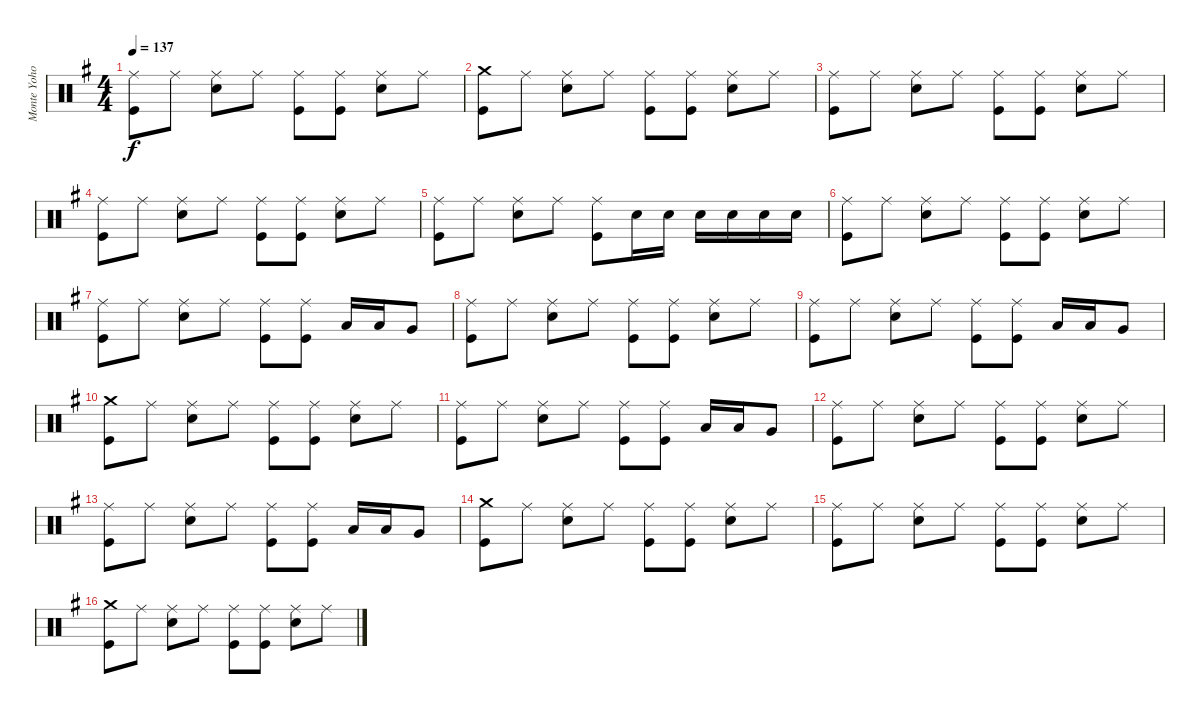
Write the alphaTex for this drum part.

\track ("Monte Yoho Drums" "Monte Yoho") {instrument percussion}
\staff {score}
\articulation defaults
\ts (4 4)
\tempo 137
\clef neutral
\ks g
("Ride (middle)" "Kick (hit)").8{dy f} "Ride (middle)".8 ("Ride (middle)" "Snare (hit) 2").8 "Ride (middle)".8 ("Ride (middle)" "Kick (hit)").8 ("Ride (middle)" "Kick (hit)").8 ("Ride (middle)" "Snare (hit) 2").8 "Ride (middle)".8 |
("Crash medium (hit)" "Kick (hit)").8 "Ride (middle)".8 ("Ride (middle)" "Snare (hit) 2").8 "Ride (middle)".8 ("Ride (middle)" "Kick (hit)").8 ("Ride (middle)" "Kick (hit)").8 ("Ride (middle)" "Snare (hit) 2").8 "Ride (middle)".8 |
("Ride (middle)" "Kick (hit)").8 "Ride (middle)".8 ("Ride (middle)" "Snare (hit) 2").8 "Ride (middle)".8 ("Ride (middle)" "Kick (hit)").8 ("Ride (middle)" "Kick (hit)").8 ("Ride (middle)" "Snare (hit) 2").8 "Ride (middle)".8 |
("Ride (middle)" "Kick (hit)").8 "Ride (middle)".8 ("Ride (middle)" "Snare (hit) 2").8 "Ride (middle)".8 ("Ride (middle)" "Kick (hit)").8 ("Ride (middle)" "Kick (hit)").8 ("Ride (middle)" "Snare (hit) 2").8 "Ride (middle)".8 |
("Ride (middle)" "Kick (hit)").8 "Ride (middle)".8 ("Ride (middle)" "Snare (hit) 2").8 "Ride (middle)".8 ("Ride (middle)" "Kick (hit)").8 "Snare (hit) 2".16 "Snare (hit) 2".16 "Snare (hit) 2".16 "Snare (hit) 2".16 "Snare (hit) 2".16 "Snare (hit) 2".16 |
("Ride (middle)" "Kick (hit)").8 "Ride (middle)".8 ("Ride (middle)" "Snare (hit) 2").8 "Ride (middle)".8 ("Ride (middle)" "Kick (hit)").8 ("Ride (middle)" "Kick (hit)").8 ("Ride (middle)" "Snare (hit) 2").8 "Ride (middle)".8 |
("Ride (middle)" "Kick (hit)").8 "Ride (middle)".8 ("Ride (middle)" "Snare (hit) 2").8 "Ride (middle)".8 ("Ride (middle)" "Kick (hit)").8 ("Ride (middle)" "Kick (hit)").8 "Low Tom (hit)".16 "Low Tom (hit)".16 "Very Low Tom (hit)".8 |
("Ride (middle)" "Kick (hit)").8 "Ride (middle)".8 ("Ride (middle)" "Snare (hit) 2").8 "Ride (middle)".8 ("Ride (middle)" "Kick (hit)").8 ("Ride (middle)" "Kick (hit)").8 ("Ride (middle)" "Snare (hit) 2").8 "Ride (middle)".8 |
("Ride (middle)" "Kick (hit)").8 "Ride (middle)".8 ("Ride (middle)" "Snare (hit) 2").8 "Ride (middle)".8 ("Ride (middle)" "Kick (hit)").8 ("Ride (middle)" "Kick (hit)").8 "Low Tom (hit)".16 "Low Tom (hit)".16 "Very Low Tom (hit)".8 |
("Crash medium (hit)" "Kick (hit)").8 "Ride (middle)".8 ("Ride (middle)" "Snare (hit) 2").8 "Ride (middle)".8 ("Ride (middle)" "Kick (hit)").8 ("Ride (middle)" "Kick (hit)").8 ("Ride (middle)" "Snare (hit) 2").8 "Ride (middle)".8 |
("Ride (middle)" "Kick (hit)").8 "Ride (middle)".8 ("Ride (middle)" "Snare (hit) 2").8 "Ride (middle)".8 ("Ride (middle)" "Kick (hit)").8 ("Ride (middle)" "Kick (hit)").8 "Low Tom (hit)".16 "Low Tom (hit)".16 "Very Low Tom (hit)".8 |
("Ride (middle)" "Kick (hit)").8 "Ride (middle)".8 ("Ride (middle)" "Snare (hit) 2").8 "Ride (middle)".8 ("Ride (middle)" "Kick (hit)").8 ("Ride (middle)" "Kick (hit)").8 ("Ride (middle)" "Snare (hit) 2").8 "Ride (middle)".8 |
("Ride (middle)" "Kick (hit)").8 "Ride (middle)".8 ("Ride (middle)" "Snare (hit) 2").8 "Ride (middle)".8 ("Ride (middle)" "Kick (hit)").8 ("Ride (middle)" "Kick (hit)").8 "Low Tom (hit)".16 "Low Tom (hit)".16 "Very Low Tom (hit)".8 |
("Crash medium (hit)" "Kick (hit)").8 "Ride (middle)".8 ("Ride (middle)" "Snare (hit) 2").8 "Ride (middle)".8 ("Ride (middle)" "Kick (hit)").8 ("Ride (middle)" "Kick (hit)").8 ("Ride (middle)" "Snare (hit) 2").8 "Ride (middle)".8 |
("Ride (middle)" "Kick (hit)").8 "Ride (middle)".8 ("Ride (middle)" "Snare (hit) 2").8 "Ride (middle)".8 ("Ride (middle)" "Kick (hit)").8 ("Ride (middle)" "Kick (hit)").8 ("Ride (middle)" "Snare (hit) 2").8 "Ride (middle)".8 |
("Crash medium (hit)" "Kick (hit)").8 "Ride (middle)".8 ("Ride (middle)" "Snare (hit) 2").8 "Ride (middle)".8 ("Ride (middle)" "Kick (hit)").8 ("Ride (middle)" "Kick (hit)").8 ("Ride (middle)" "Snare (hit) 2").8 "Ride (middle)".8
